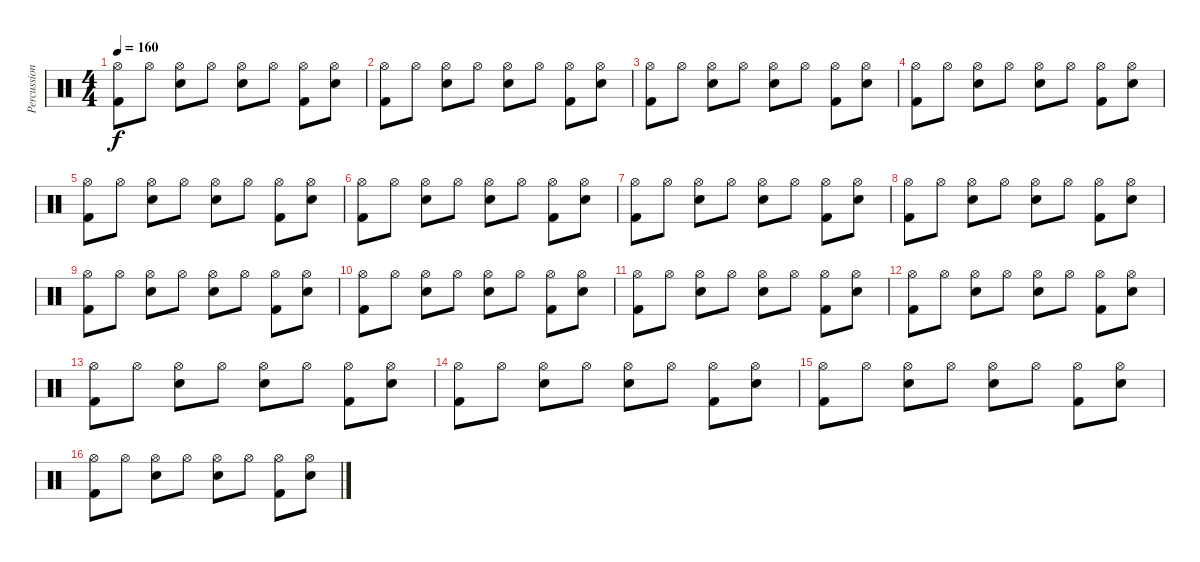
\track ("Percussions" "Percussion") {instrument percussion}
\staff {score}
\articulation defaults
\ts (4 4)
\tempo 160
\clef neutral
\ks c
("Hi-Hat (open)" "Kick (hit) 2").8{dy f} "Hi-Hat (open)".8 ("Hi-Hat (open)" "Electric Snare (hit)").8 "Hi-Hat (open)".8 ("Hi-Hat (open)" "Electric Snare (hit)").8 "Hi-Hat (open)".8 ("Hi-Hat (open)" "Kick (hit) 2").8 ("Hi-Hat (open)" "Electric Snare (hit)").8 |
("Hi-Hat (open)" "Kick (hit) 2").8 "Hi-Hat (open)".8 ("Hi-Hat (open)" "Electric Snare (hit)").8 "Hi-Hat (open)".8 ("Hi-Hat (open)" "Electric Snare (hit)").8 "Hi-Hat (open)".8 ("Hi-Hat (open)" "Kick (hit) 2").8 ("Hi-Hat (open)" "Electric Snare (hit)").8 |
("Hi-Hat (open)" "Kick (hit) 2").8 "Hi-Hat (open)".8 ("Hi-Hat (open)" "Electric Snare (hit)").8 "Hi-Hat (open)".8 ("Hi-Hat (open)" "Electric Snare (hit)").8 "Hi-Hat (open)".8 ("Hi-Hat (open)" "Kick (hit) 2").8 ("Hi-Hat (open)" "Electric Snare (hit)").8 |
("Hi-Hat (open)" "Kick (hit) 2").8 "Hi-Hat (open)".8 ("Hi-Hat (open)" "Electric Snare (hit)").8 "Hi-Hat (open)".8 ("Hi-Hat (open)" "Electric Snare (hit)").8 "Hi-Hat (open)".8 ("Hi-Hat (open)" "Kick (hit) 2").8 ("Hi-Hat (open)" "Electric Snare (hit)").8 |
("Hi-Hat (open)" "Kick (hit) 2").8 "Hi-Hat (open)".8 ("Hi-Hat (open)" "Electric Snare (hit)").8 "Hi-Hat (open)".8 ("Hi-Hat (open)" "Electric Snare (hit)").8 "Hi-Hat (open)".8 ("Hi-Hat (open)" "Kick (hit) 2").8 ("Hi-Hat (open)" "Electric Snare (hit)").8 |
("Hi-Hat (open)" "Kick (hit) 2").8 "Hi-Hat (open)".8 ("Hi-Hat (open)" "Electric Snare (hit)").8 "Hi-Hat (open)".8 ("Hi-Hat (open)" "Electric Snare (hit)").8 "Hi-Hat (open)".8 ("Hi-Hat (open)" "Kick (hit) 2").8 ("Hi-Hat (open)" "Electric Snare (hit)").8 |
("Hi-Hat (open)" "Kick (hit) 2").8 "Hi-Hat (open)".8 ("Hi-Hat (open)" "Electric Snare (hit)").8 "Hi-Hat (open)".8 ("Hi-Hat (open)" "Electric Snare (hit)").8 "Hi-Hat (open)".8 ("Hi-Hat (open)" "Kick (hit) 2").8 ("Hi-Hat (open)" "Electric Snare (hit)").8 |
("Hi-Hat (open)" "Kick (hit) 2").8 "Hi-Hat (open)".8 ("Hi-Hat (open)" "Electric Snare (hit)").8 "Hi-Hat (open)".8 ("Hi-Hat (open)" "Electric Snare (hit)").8 "Hi-Hat (open)".8 ("Hi-Hat (open)" "Kick (hit) 2").8 ("Hi-Hat (open)" "Electric Snare (hit)").8 |
("Hi-Hat (open)" "Kick (hit) 2").8 "Hi-Hat (open)".8 ("Hi-Hat (open)" "Electric Snare (hit)").8 "Hi-Hat (open)".8 ("Hi-Hat (open)" "Electric Snare (hit)").8 "Hi-Hat (open)".8 ("Hi-Hat (open)" "Kick (hit) 2").8 ("Hi-Hat (open)" "Electric Snare (hit)").8 |
("Hi-Hat (open)" "Kick (hit) 2").8 "Hi-Hat (open)".8 ("Hi-Hat (open)" "Electric Snare (hit)").8 "Hi-Hat (open)".8 ("Hi-Hat (open)" "Electric Snare (hit)").8 "Hi-Hat (open)".8 ("Hi-Hat (open)" "Kick (hit) 2").8 ("Hi-Hat (open)" "Electric Snare (hit)").8 |
("Hi-Hat (open)" "Kick (hit) 2").8 "Hi-Hat (open)".8 ("Hi-Hat (open)" "Electric Snare (hit)").8 "Hi-Hat (open)".8 ("Hi-Hat (open)" "Electric Snare (hit)").8 "Hi-Hat (open)".8 ("Hi-Hat (open)" "Kick (hit) 2").8 ("Hi-Hat (open)" "Electric Snare (hit)").8 |
("Hi-Hat (open)" "Kick (hit) 2").8 "Hi-Hat (open)".8 ("Hi-Hat (open)" "Electric Snare (hit)").8 "Hi-Hat (open)".8 ("Hi-Hat (open)" "Electric Snare (hit)").8 "Hi-Hat (open)".8 ("Hi-Hat (open)" "Kick (hit) 2").8 ("Hi-Hat (open)" "Electric Snare (hit)").8 |
("Hi-Hat (open)" "Kick (hit) 2").8 "Hi-Hat (open)".8 ("Hi-Hat (open)" "Electric Snare (hit)").8 "Hi-Hat (open)".8 ("Hi-Hat (open)" "Electric Snare (hit)").8 "Hi-Hat (open)".8 ("Hi-Hat (open)" "Kick (hit) 2").8 ("Hi-Hat (open)" "Electric Snare (hit)").8 |
("Hi-Hat (open)" "Kick (hit) 2").8 "Hi-Hat (open)".8 ("Hi-Hat (open)" "Electric Snare (hit)").8 "Hi-Hat (open)".8 ("Hi-Hat (open)" "Electric Snare (hit)").8 "Hi-Hat (open)".8 ("Hi-Hat (open)" "Kick (hit) 2").8 ("Hi-Hat (open)" "Electric Snare (hit)").8 |
("Hi-Hat (open)" "Kick (hit) 2").8 "Hi-Hat (open)".8 ("Hi-Hat (open)" "Electric Snare (hit)").8 "Hi-Hat (open)".8 ("Hi-Hat (open)" "Electric Snare (hit)").8 "Hi-Hat (open)".8 ("Hi-Hat (open)" "Kick (hit) 2").8 ("Hi-Hat (open)" "Electric Snare (hit)").8 |
("Hi-Hat (open)" "Kick (hit) 2").8 "Hi-Hat (open)".8 ("Hi-Hat (open)" "Electric Snare (hit)").8 "Hi-Hat (open)".8 ("Hi-Hat (open)" "Electric Snare (hit)").8 "Hi-Hat (open)".8 ("Hi-Hat (open)" "Kick (hit) 2").8 ("Hi-Hat (open)" "Electric Snare (hit)").8
